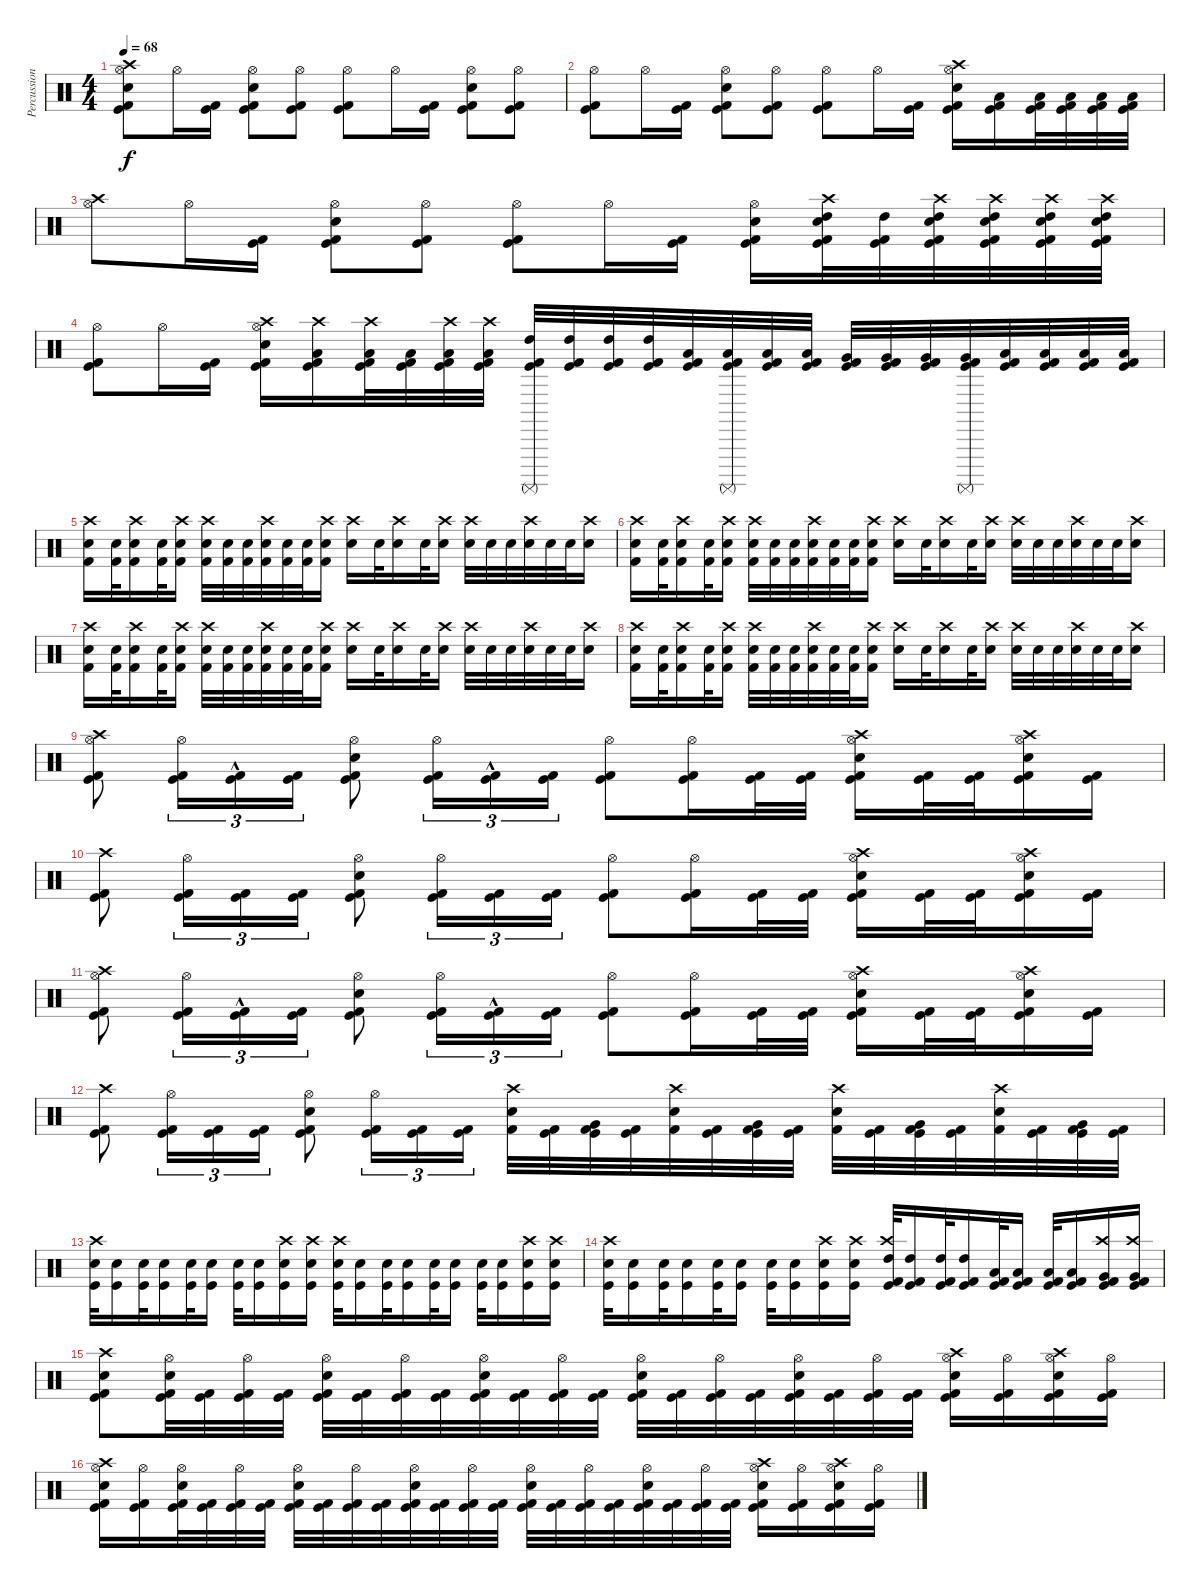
\track ("Percussion" "Percussion") {instrument percussion}
\staff {score}
\articulation defaults
\ts (4 4)
\section ("" "")
\tempo 68
\clef neutral
\ks c
("Kick (hit)" "Kick (hit) 2" "Snare (hit) 2" "Hi-Hat (open)" "Crash high (hit)").8{dy f} "Hi-Hat (open)".16 ("Kick (hit)" "Kick (hit) 2").16 ("Kick (hit)" "Kick (hit) 2" "Snare (hit) 2" "Hi-Hat (open)").8 ("Kick (hit)" "Kick (hit) 2" "Hi-Hat (open)").8 ("Kick (hit)" "Kick (hit) 2" "Hi-Hat (open)").8 "Hi-Hat (open)".16 ("Kick (hit)" "Kick (hit) 2").16 ("Kick (hit)" "Kick (hit) 2" "Snare (hit) 2" "Hi-Hat (open)").8 ("Kick (hit)" "Kick (hit) 2" "Hi-Hat (open)").8 |
("Kick (hit)" "Kick (hit) 2" "Hi-Hat (open)").8 "Hi-Hat (open)".16 ("Kick (hit)" "Kick (hit) 2").16 ("Kick (hit)" "Kick (hit) 2" "Snare (hit) 2" "Hi-Hat (open)").8 ("Kick (hit)" "Kick (hit) 2" "Hi-Hat (open)").8 ("Kick (hit)" "Kick (hit) 2" "Hi-Hat (open)").8 "Hi-Hat (open)".16 ("Kick (hit)" "Kick (hit) 2").16 ("Kick (hit)" "Kick (hit) 2" "Snare (hit) 2" "Hi-Hat (open)" "Crash high (hit)").16 ("Kick (hit)" "Kick (hit) 2" "Low Tom (hit)").16 ("Kick (hit)" "Kick (hit) 2" "Low Tom (hit)").32 ("Kick (hit)" "Kick (hit) 2" "Low Tom (hit)").32 ("Kick (hit)" "Kick (hit) 2" "Low Tom (hit)").32 ("Kick (hit)" "Kick (hit) 2" "Low Tom (hit)").32 |
("Hi-Hat (open)" "Crash high (hit)").8 "Hi-Hat (open)".16 ("Kick (hit)" "Kick (hit) 2").16 ("Kick (hit)" "Kick (hit) 2" "Snare (hit) 2" "Hi-Hat (open)").8 ("Kick (hit)" "Kick (hit) 2" "Hi-Hat (open)").8 ("Kick (hit)" "Kick (hit) 2" "Hi-Hat (open)").8 "Hi-Hat (open)".16 ("Kick (hit)" "Kick (hit) 2").16 ("Kick (hit)" "Kick (hit) 2" "Snare (hit) 2" "Hi-Hat (open)").16 ("Kick (hit)" "Kick (hit) 2" "Snare (hit) 2" "High Tom (hit)" "Crash high (hit)").32 ("Kick (hit)" "Kick (hit) 2" "High Tom (hit)").32 ("Kick (hit)" "Kick (hit) 2" "Snare (hit) 2" "High Tom (hit)" "Crash high (hit)").32 ("Kick (hit)" "Kick (hit) 2" "Snare (hit) 2" "High Tom (hit)" "Crash high (hit)").32 ("Kick (hit)" "Kick (hit) 2" "Snare (hit) 2" "High Tom (hit)" "Crash high (hit)").32 ("Kick (hit)" "Kick (hit) 2" "Snare (hit) 2" "High Tom (hit)" "Crash high (hit)").32 |
("Kick (hit)" "Kick (hit) 2" "Hi-Hat (open)").8 "Hi-Hat (open)".16 ("Kick (hit)" "Kick (hit) 2").16 ("Kick (hit)" "Kick (hit) 2" "Snare (hit) 2" "Hi-Hat (open)" "Crash high (hit)").16 ("Kick (hit)" "Kick (hit) 2" "Low Tom (hit)" "Crash high (hit)").16 ("Kick (hit)" "Kick (hit) 2" "Low Tom (hit)" "Crash high (hit)").32 ("Kick (hit)" "Kick (hit) 2" "Low Tom (hit)").32 ("Kick (hit)" "Kick (hit) 2" "Low Tom (hit)" "Crash high (hit)").32 ("Kick (hit)" "Kick (hit) 2" "Low Tom (hit)" "Crash high (hit)").32 ("Kick (hit)" "Kick (hit) 2" "High Tom (hit)" "Surdo (mute)").32 ("Kick (hit)" "Kick (hit) 2" "High Tom (hit)").32 ("Kick (hit)" "Kick (hit) 2" "High Tom (hit)").32 ("Kick (hit)" "Kick (hit) 2" "High Tom (hit)").32 ("Kick (hit)" "Kick (hit) 2" "Low Tom (hit)").32 ("Kick (hit)" "Kick (hit) 2" "Low Tom (hit)" "Surdo (mute)").32 ("Kick (hit)" "Kick (hit) 2" "Low Tom (hit)").32 ("Kick (hit)" "Kick (hit) 2" "Low Tom (hit)").32 ("Kick (hit)" "Kick (hit) 2" "Very Low Tom (hit)").32 ("Kick (hit)" "Kick (hit) 2" "Very Low Tom (hit)").32 ("Kick (hit)" "Kick (hit) 2" "Very Low Tom (hit)").32 ("Kick (hit)" "Kick (hit) 2" "Very Low Tom (hit)" "Surdo (mute)").32 ("Kick (hit)" "Kick (hit) 2" "Low Floor Tom (hit)").32 ("Kick (hit)" "Kick (hit) 2" "Low Floor Tom (hit)").32 ("Kick (hit)" "Kick (hit) 2" "Low Floor Tom (hit)").32 ("Kick (hit)" "Kick (hit) 2" "Low Floor Tom (hit)").32 |
\section ("" "")
("Kick (hit) 2" "Snare (hit) 2" "Crash high (hit)").16 ("Kick (hit) 2" "Snare (hit) 2").32 ("Kick (hit) 2" "Snare (hit) 2" "Crash high (hit)").16 ("Kick (hit) 2" "Snare (hit) 2").32 ("Kick (hit) 2" "Snare (hit) 2" "Crash high (hit)").16 ("Kick (hit) 2" "Snare (hit) 2" "Crash high (hit)").32 ("Kick (hit) 2" "Snare (hit) 2").32 ("Kick (hit) 2" "Snare (hit) 2").32 ("Kick (hit) 2" "Snare (hit) 2" "Crash high (hit)").32 ("Kick (hit) 2" "Snare (hit) 2").32 ("Kick (hit) 2" "Snare (hit) 2").32 ("Kick (hit) 2" "Snare (hit) 2" "Crash high (hit)").16 ("Snare (hit) 2" "Crash high (hit)").16 "Snare (hit) 2".32 ("Snare (hit) 2" "Crash high (hit)").16 "Snare (hit) 2".32 ("Snare (hit) 2" "Crash high (hit)").16 ("Snare (hit) 2" "Crash high (hit)").32 "Snare (hit) 2".32 "Snare (hit) 2".32 ("Snare (hit) 2" "Crash high (hit)").32 "Snare (hit) 2".32 "Snare (hit) 2".32 ("Snare (hit) 2" "Crash high (hit)").16 |
("Kick (hit) 2" "Snare (hit) 2" "Crash high (hit)").16 ("Kick (hit) 2" "Snare (hit) 2").32 ("Kick (hit) 2" "Snare (hit) 2" "Crash high (hit)").16 ("Kick (hit) 2" "Snare (hit) 2").32 ("Kick (hit) 2" "Snare (hit) 2" "Crash high (hit)").16 ("Kick (hit) 2" "Snare (hit) 2" "Crash high (hit)").32 ("Kick (hit) 2" "Snare (hit) 2").32 ("Kick (hit) 2" "Snare (hit) 2").32 ("Kick (hit) 2" "Snare (hit) 2" "Crash high (hit)").32 ("Kick (hit) 2" "Snare (hit) 2").32 ("Kick (hit) 2" "Snare (hit) 2").32 ("Kick (hit) 2" "Snare (hit) 2" "Crash high (hit)").16 ("Snare (hit) 2" "Crash high (hit)").16 "Snare (hit) 2".32 ("Snare (hit) 2" "Crash high (hit)").16 "Snare (hit) 2".32 ("Snare (hit) 2" "Crash high (hit)").16 ("Snare (hit) 2" "Crash high (hit)").32 "Snare (hit) 2".32 "Snare (hit) 2".32 ("Snare (hit) 2" "Crash high (hit)").32 "Snare (hit) 2".32 "Snare (hit) 2".32 ("Snare (hit) 2" "Crash high (hit)").16 |
("Kick (hit) 2" "Snare (hit) 2" "Crash high (hit)").16 ("Kick (hit) 2" "Snare (hit) 2").32 ("Kick (hit) 2" "Snare (hit) 2" "Crash high (hit)").16 ("Kick (hit) 2" "Snare (hit) 2").32 ("Kick (hit) 2" "Snare (hit) 2" "Crash high (hit)").16 ("Kick (hit) 2" "Snare (hit) 2" "Crash high (hit)").32 ("Kick (hit) 2" "Snare (hit) 2").32 ("Kick (hit) 2" "Snare (hit) 2").32 ("Kick (hit) 2" "Snare (hit) 2" "Crash high (hit)").32 ("Kick (hit) 2" "Snare (hit) 2").32 ("Kick (hit) 2" "Snare (hit) 2").32 ("Kick (hit) 2" "Snare (hit) 2" "Crash high (hit)").16 ("Snare (hit) 2" "Crash high (hit)").16 "Snare (hit) 2".32 ("Snare (hit) 2" "Crash high (hit)").16 "Snare (hit) 2".32 ("Snare (hit) 2" "Crash high (hit)").16 ("Snare (hit) 2" "Crash high (hit)").32 "Snare (hit) 2".32 "Snare (hit) 2".32 ("Snare (hit) 2" "Crash high (hit)").32 "Snare (hit) 2".32 "Snare (hit) 2".32 ("Snare (hit) 2" "Crash high (hit)").16 |
("Kick (hit) 2" "Snare (hit) 2" "Crash high (hit)").16 ("Kick (hit) 2" "Snare (hit) 2").32 ("Kick (hit) 2" "Snare (hit) 2" "Crash high (hit)").16 ("Kick (hit) 2" "Snare (hit) 2").32 ("Kick (hit) 2" "Snare (hit) 2" "Crash high (hit)").16 ("Kick (hit) 2" "Snare (hit) 2" "Crash high (hit)").32 ("Kick (hit) 2" "Snare (hit) 2").32 ("Kick (hit) 2" "Snare (hit) 2").32 ("Kick (hit) 2" "Snare (hit) 2" "Crash high (hit)").32 ("Kick (hit) 2" "Snare (hit) 2").32 ("Kick (hit) 2" "Snare (hit) 2").32 ("Kick (hit) 2" "Snare (hit) 2" "Crash high (hit)").16 ("Snare (hit) 2" "Crash high (hit)").16 "Snare (hit) 2".32 ("Snare (hit) 2" "Crash high (hit)").16 "Snare (hit) 2".32 ("Snare (hit) 2" "Crash high (hit)").16 ("Snare (hit) 2" "Crash high (hit)").32 "Snare (hit) 2".32 "Snare (hit) 2".32 ("Snare (hit) 2" "Crash high (hit)").32 "Snare (hit) 2".32 "Snare (hit) 2".32 ("Snare (hit) 2" "Crash high (hit)").16 |
\section ("" "")
("Kick (hit)" "Kick (hit) 2" "Hi-Hat (open)" "Crash high (hit)").8 ("Kick (hit)" "Kick (hit) 2" "Hi-Hat (open)").16{tu (3 2)} ("Kick (hit)"{hac} "Kick (hit) 2"{hac}).16{tu (3 2)} ("Kick (hit)" "Kick (hit) 2").16{tu (3 2)} ("Kick (hit)" "Kick (hit) 2" "Snare (hit) 2" "Hi-Hat (open)").8 ("Kick (hit)" "Kick (hit) 2" "Hi-Hat (open)").16{tu (3 2)} ("Kick (hit)"{hac} "Kick (hit) 2"{hac}).16{tu (3 2)} ("Kick (hit)" "Kick (hit) 2").16{tu (3 2)} ("Kick (hit)" "Kick (hit) 2" "Hi-Hat (open)").8 ("Kick (hit)" "Kick (hit) 2" "Hi-Hat (open)").16 ("Kick (hit)" "Kick (hit) 2").32 ("Kick (hit)" "Kick (hit) 2").32 ("Kick (hit)" "Kick (hit) 2" "Snare (hit) 2" "Hi-Hat (open)" "Crash high (hit)").16 ("Kick (hit)" "Kick (hit) 2").32 ("Kick (hit)" "Kick (hit) 2").32 ("Kick (hit)" "Kick (hit) 2" "Snare (hit) 2" "Hi-Hat (open)" "Crash high (hit)").16 ("Kick (hit)" "Kick (hit) 2").16 |
("Kick (hit)" "Kick (hit) 2" "Crash high (hit)").8 ("Kick (hit)" "Kick (hit) 2" "Hi-Hat (open)").16{tu (3 2)} ("Kick (hit)" "Kick (hit) 2").16{tu (3 2)} ("Kick (hit)" "Kick (hit) 2").16{tu (3 2)} ("Kick (hit)" "Kick (hit) 2" "Snare (hit) 2" "Hi-Hat (open)").8 ("Kick (hit)" "Kick (hit) 2" "Hi-Hat (open)").16{tu (3 2)} ("Kick (hit)" "Kick (hit) 2").16{tu (3 2)} ("Kick (hit)" "Kick (hit) 2").16{tu (3 2)} ("Kick (hit)" "Kick (hit) 2" "Hi-Hat (open)").8 ("Kick (hit)" "Kick (hit) 2" "Hi-Hat (open)").16 ("Kick (hit)" "Kick (hit) 2").32 ("Kick (hit)" "Kick (hit) 2").32 ("Kick (hit)" "Kick (hit) 2" "Snare (hit) 2" "Hi-Hat (open)" "Crash high (hit)").16 ("Kick (hit)" "Kick (hit) 2").32 ("Kick (hit)" "Kick (hit) 2").32 ("Kick (hit)" "Kick (hit) 2" "Snare (hit) 2" "Hi-Hat (open)" "Crash high (hit)").16 ("Kick (hit)" "Kick (hit) 2").16 |
("Kick (hit)" "Kick (hit) 2" "Hi-Hat (open)" "Crash high (hit)").8 ("Kick (hit)" "Kick (hit) 2" "Hi-Hat (open)").16{tu (3 2)} ("Kick (hit)"{hac} "Kick (hit) 2"{hac}).16{tu (3 2)} ("Kick (hit)" "Kick (hit) 2").16{tu (3 2)} ("Kick (hit)" "Kick (hit) 2" "Snare (hit) 2" "Hi-Hat (open)").8 ("Kick (hit)" "Kick (hit) 2" "Hi-Hat (open)").16{tu (3 2)} ("Kick (hit)"{hac} "Kick (hit) 2"{hac}).16{tu (3 2)} ("Kick (hit)" "Kick (hit) 2").16{tu (3 2)} ("Kick (hit)" "Kick (hit) 2" "Hi-Hat (open)").8 ("Kick (hit)" "Kick (hit) 2" "Hi-Hat (open)").16 ("Kick (hit)" "Kick (hit) 2").32 ("Kick (hit)" "Kick (hit) 2").32 ("Kick (hit)" "Kick (hit) 2" "Snare (hit) 2" "Hi-Hat (open)" "Crash high (hit)").16 ("Kick (hit)" "Kick (hit) 2").32 ("Kick (hit)" "Kick (hit) 2").32 ("Kick (hit)" "Kick (hit) 2" "Snare (hit) 2" "Hi-Hat (open)" "Crash high (hit)").16 ("Kick (hit)" "Kick (hit) 2").16 |
("Kick (hit)" "Kick (hit) 2" "Crash high (hit)").8 ("Kick (hit)" "Kick (hit) 2" "Hi-Hat (open)").16{tu (3 2)} ("Kick (hit)" "Kick (hit) 2").16{tu (3 2)} ("Kick (hit)" "Kick (hit) 2").16{tu (3 2)} ("Kick (hit)" "Kick (hit) 2" "Snare (hit) 2" "Hi-Hat (open)").8 ("Kick (hit)" "Kick (hit) 2" "Hi-Hat (open)").16{tu (3 2)} ("Kick (hit)" "Kick (hit) 2").16{tu (3 2)} ("Kick (hit)" "Kick (hit) 2").16{tu (3 2)} ("Kick (hit) 2" "Snare (hit) 2" "Crash high (hit)").32 ("Kick (hit)" "Kick (hit) 2").32 ("Kick (hit)" "Kick (hit) 2" "Very Low Tom (hit)").32 ("Kick (hit)" "Kick (hit) 2").32 ("Kick (hit) 2" "Snare (hit) 2" "Crash high (hit)").32 ("Kick (hit)" "Kick (hit) 2").32 ("Kick (hit)" "Kick (hit) 2" "Very Low Tom (hit)").32 ("Kick (hit)" "Kick (hit) 2").32 ("Kick (hit) 2" "Snare (hit) 2" "Crash high (hit)").32 ("Kick (hit)" "Kick (hit) 2").32 ("Kick (hit)" "Kick (hit) 2" "Very Low Tom (hit)").32 ("Kick (hit)" "Kick (hit) 2").32 ("Kick (hit) 2" "Snare (hit) 2" "Crash high (hit)").32 ("Kick (hit)" "Kick (hit) 2").32 ("Kick (hit)" "Kick (hit) 2" "Very Low Tom (hit)").32 ("Kick (hit)" "Kick (hit) 2").32 |
\section ("" "")
("Kick (hit)" "Snare (hit) 2" "Crash high (hit)").32 ("Kick (hit)" "Snare (hit) 2").16 ("Kick (hit)" "Snare (hit) 2").32 ("Kick (hit)" "Snare (hit) 2").16 ("Kick (hit)" "Snare (hit) 2").32 ("Kick (hit)" "Snare (hit) 2").16 ("Kick (hit)" "Snare (hit) 2").32 ("Kick (hit)" "Snare (hit) 2").16 ("Kick (hit)" "Snare (hit) 2" "Crash high (hit)").16 ("Kick (hit)" "Snare (hit) 2" "Crash high (hit)").16 ("Kick (hit)" "Snare (hit) 2" "Crash high (hit)").32 ("Kick (hit)" "Snare (hit) 2").16 ("Kick (hit)" "Snare (hit) 2").32 ("Kick (hit)" "Snare (hit) 2").16 ("Kick (hit)" "Snare (hit) 2").32 ("Kick (hit)" "Snare (hit) 2").16 ("Kick (hit)" "Snare (hit) 2").32 ("Kick (hit)" "Snare (hit) 2").16 ("Kick (hit)" "Snare (hit) 2" "Crash high (hit)").16 ("Kick (hit)" "Snare (hit) 2" "Crash high (hit)").16 |
("Kick (hit)" "Snare (hit) 2" "Crash high (hit)").32 ("Kick (hit)" "Snare (hit) 2").16 ("Kick (hit)" "Snare (hit) 2").32 ("Kick (hit)" "Snare (hit) 2").16 ("Kick (hit)" "Snare (hit) 2").32 ("Kick (hit)" "Snare (hit) 2").16 ("Kick (hit)" "Snare (hit) 2").32 ("Kick (hit)" "Snare (hit) 2").16 ("Kick (hit)" "Snare (hit) 2" "Crash high (hit)").16 ("Kick (hit)" "Snare (hit) 2" "Crash high (hit)").16 ("Kick (hit)" "Kick (hit) 2" "High Tom (hit)" "Crash high (hit)").32 ("Kick (hit)" "Kick (hit) 2" "High Tom (hit)").16 ("Kick (hit)" "Kick (hit) 2" "High Tom (hit)").32 ("Kick (hit)" "Kick (hit) 2" "High Tom (hit)").16 ("Kick (hit)" "Kick (hit) 2" "Low Tom (hit)").32 ("Kick (hit)" "Kick (hit) 2" "Low Tom (hit)").16 ("Kick (hit)" "Kick (hit) 2" "Low Tom (hit)").32 ("Kick (hit)" "Kick (hit) 2" "Low Tom (hit)").16 ("Kick (hit)" "Kick (hit) 2" "Very Low Tom (hit)" "Crash high (hit)").16 ("Kick (hit)" "Kick (hit) 2" "Very Low Tom (hit)" "Crash high (hit)").16 |
\section ("" "")
("Kick (hit)" "Kick (hit) 2" "Snare (hit) 2" "Crash high (hit)").8 ("Kick (hit)" "Kick (hit) 2" "Snare (hit) 2" "Hi-Hat (open)").32 ("Kick (hit)" "Kick (hit) 2").32 ("Kick (hit)" "Kick (hit) 2" "Hi-Hat (open)").32 ("Kick (hit)" "Kick (hit) 2").32 ("Kick (hit)" "Kick (hit) 2" "Snare (hit) 2" "Hi-Hat (open)").32 ("Kick (hit)" "Kick (hit) 2").32 ("Kick (hit)" "Kick (hit) 2" "Hi-Hat (open)").32 ("Kick (hit)" "Kick (hit) 2").32 ("Kick (hit)" "Kick (hit) 2" "Snare (hit) 2" "Hi-Hat (open)").32 ("Kick (hit)" "Kick (hit) 2").32 ("Kick (hit)" "Kick (hit) 2" "Hi-Hat (open)").32 ("Kick (hit)" "Kick (hit) 2").32 ("Kick (hit)" "Kick (hit) 2" "Snare (hit) 2" "Hi-Hat (open)").32 ("Kick (hit)" "Kick (hit) 2").32 ("Kick (hit)" "Kick (hit) 2" "Hi-Hat (open)").32 ("Kick (hit)" "Kick (hit) 2").32 ("Kick (hit)" "Kick (hit) 2" "Snare (hit) 2" "Hi-Hat (open)").32 ("Kick (hit)" "Kick (hit) 2").32 ("Kick (hit)" "Kick (hit) 2" "Hi-Hat (open)").32 ("Kick (hit)" "Kick (hit) 2").32 ("Kick (hit)" "Kick (hit) 2" "Snare (hit) 2" "Hi-Hat (open)" "Crash high (hit)").16 ("Kick (hit)" "Kick (hit) 2" "Hi-Hat (open)").16 ("Kick (hit)" "Kick (hit) 2" "Snare (hit) 2" "Hi-Hat (open)" "Crash high (hit)").16 ("Kick (hit)" "Kick (hit) 2" "Hi-Hat (open)").16 |
("Kick (hit)" "Kick (hit) 2" "Snare (hit) 2" "Hi-Hat (open)" "Crash high (hit)").16 ("Kick (hit)" "Kick (hit) 2" "Hi-Hat (open)").16 ("Kick (hit)" "Kick (hit) 2" "Snare (hit) 2" "Hi-Hat (open)").32 ("Kick (hit)" "Kick (hit) 2").32 ("Kick (hit)" "Kick (hit) 2" "Hi-Hat (open)").32 ("Kick (hit)" "Kick (hit) 2").32 ("Kick (hit)" "Kick (hit) 2" "Snare (hit) 2" "Hi-Hat (open)").32 ("Kick (hit)" "Kick (hit) 2").32 ("Kick (hit)" "Kick (hit) 2" "Hi-Hat (open)").32 ("Kick (hit)" "Kick (hit) 2").32 ("Kick (hit)" "Kick (hit) 2" "Snare (hit) 2" "Hi-Hat (open)").32 ("Kick (hit)" "Kick (hit) 2").32 ("Kick (hit)" "Kick (hit) 2" "Hi-Hat (open)").32 ("Kick (hit)" "Kick (hit) 2").32 ("Kick (hit)" "Kick (hit) 2" "Snare (hit) 2" "Hi-Hat (open)").32 ("Kick (hit)" "Kick (hit) 2").32 ("Kick (hit)" "Kick (hit) 2" "Hi-Hat (open)").32 ("Kick (hit)" "Kick (hit) 2").32 ("Kick (hit)" "Kick (hit) 2" "Snare (hit) 2" "Hi-Hat (open)").32 ("Kick (hit)" "Kick (hit) 2").32 ("Kick (hit)" "Kick (hit) 2" "Hi-Hat (open)").32 ("Kick (hit)" "Kick (hit) 2").32 ("Kick (hit)" "Kick (hit) 2" "Snare (hit) 2" "Hi-Hat (open)" "Crash high (hit)").16 ("Kick (hit)" "Kick (hit) 2" "Hi-Hat (open)").16 ("Kick (hit)" "Kick (hit) 2" "Snare (hit) 2" "Hi-Hat (open)" "Crash high (hit)").16 ("Kick (hit)" "Kick (hit) 2" "Hi-Hat (open)").16
